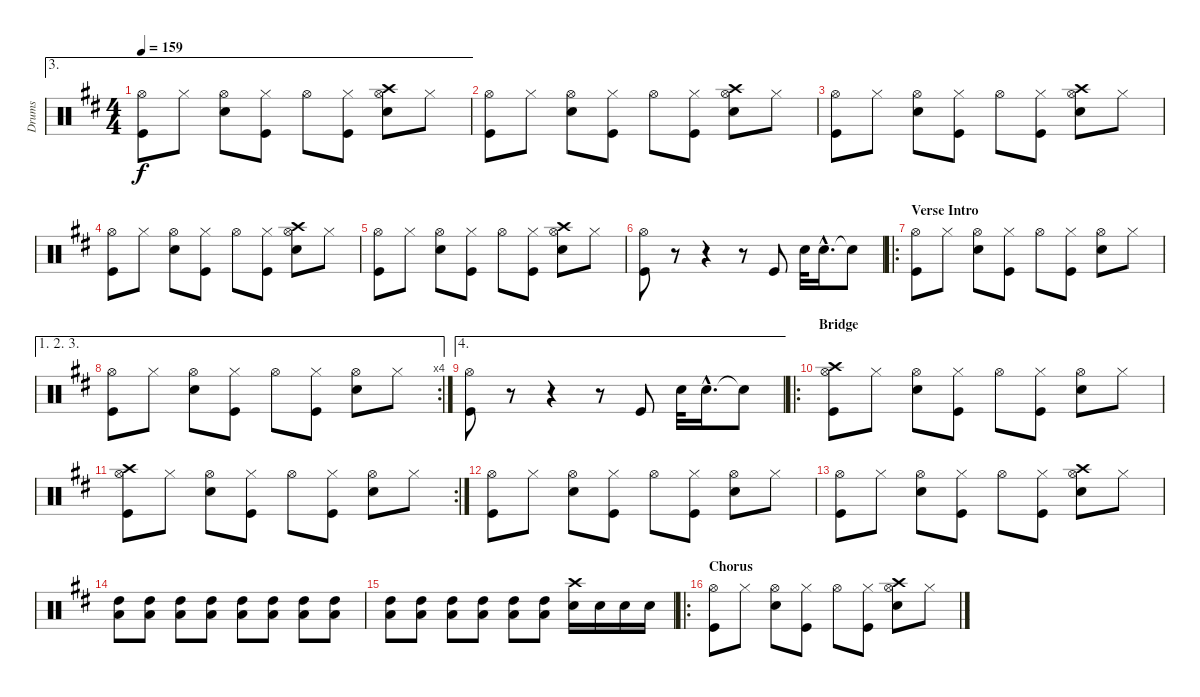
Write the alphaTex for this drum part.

\track ("Drums" "Drums") {instrument percussion}
\staff {score}
\articulation defaults
\ae 3
\ts (4 4)
\tempo 159
\clef neutral
\ks d
("Hi-Hat (open)" "Kick (hit)").8{dy f} "Hi-Hat (closed)".8 ("Hi-Hat (open)" "Snare (hit) 2").8 ("Hi-Hat (closed)" "Kick (hit)").8 "Hi-Hat (open)".8 ("Hi-Hat (closed)" "Kick (hit)").8 ("Hi-Hat (open)" "Snare (hit) 2" "Crash high (hit)").8 "Hi-Hat (closed)".8 |
("Hi-Hat (open)" "Kick (hit)").8 "Hi-Hat (closed)".8 ("Hi-Hat (open)" "Snare (hit) 2").8 ("Hi-Hat (closed)" "Kick (hit)").8 "Hi-Hat (open)".8 ("Hi-Hat (closed)" "Kick (hit)").8 ("Hi-Hat (open)" "Snare (hit) 2" "Crash high (hit)").8 "Hi-Hat (closed)".8 |
("Hi-Hat (open)" "Kick (hit)").8 "Hi-Hat (closed)".8 ("Hi-Hat (open)" "Snare (hit) 2").8 ("Hi-Hat (closed)" "Kick (hit)").8 "Hi-Hat (open)".8 ("Hi-Hat (closed)" "Kick (hit)").8 ("Hi-Hat (open)" "Snare (hit) 2" "Crash high (hit)").8 "Hi-Hat (closed)".8 |
("Hi-Hat (open)" "Kick (hit)").8 "Hi-Hat (closed)".8 ("Hi-Hat (open)" "Snare (hit) 2").8 ("Hi-Hat (closed)" "Kick (hit)").8 "Hi-Hat (open)".8 ("Hi-Hat (closed)" "Kick (hit)").8 ("Hi-Hat (open)" "Snare (hit) 2" "Crash high (hit)").8 "Hi-Hat (closed)".8 |
("Hi-Hat (open)" "Kick (hit)").8 "Hi-Hat (closed)".8 ("Hi-Hat (open)" "Snare (hit) 2").8 ("Hi-Hat (closed)" "Kick (hit)").8 "Hi-Hat (open)".8 ("Hi-Hat (closed)" "Kick (hit)").8 ("Hi-Hat (open)" "Snare (hit) 2" "Crash high (hit)").8 "Hi-Hat (closed)".8 |
("Hi-Hat (open)" "Kick (hit)").8 r.8 r.4 r.8 "Kick (hit)".8 "Snare (hit) 2".32 "Snare (hit) 2"{hac}.16{d} "Snare (hit)"{t}.8 |
\ro
\section ("" "Verse Intro")
("Hi-Hat (open)" "Kick (hit)").8 "Hi-Hat (closed)".8 ("Hi-Hat (open)" "Snare (hit) 2").8 ("Hi-Hat (closed)" "Kick (hit)").8 "Hi-Hat (open)".8 ("Hi-Hat (closed)" "Kick (hit)").8 ("Hi-Hat (open)" "Snare (hit) 2").8 "Hi-Hat (closed)".8 |
\ae (1 2 3)
\rc 4
("Hi-Hat (open)" "Kick (hit)").8 "Hi-Hat (closed)".8 ("Hi-Hat (open)" "Snare (hit) 2").8 ("Hi-Hat (closed)" "Kick (hit)").8 "Hi-Hat (open)".8 ("Hi-Hat (closed)" "Kick (hit)").8 ("Hi-Hat (open)" "Snare (hit) 2").8 "Hi-Hat (closed)".8 |
\ae 4
("Hi-Hat (open)" "Kick (hit)").8 r.8 r.4 r.8 "Kick (hit)".8 "Snare (hit) 2".32 "Snare (hit) 2"{hac}.16{d} "Snare (hit)"{t}.8 |
\ro
\section ("" "Bridge")
("Hi-Hat (open)" "Kick (hit)" "Crash high (hit)").8 "Hi-Hat (closed)".8 ("Hi-Hat (open)" "Snare (hit) 2").8 ("Hi-Hat (closed)" "Kick (hit)").8 "Hi-Hat (open)".8 ("Hi-Hat (closed)" "Kick (hit)").8 ("Hi-Hat (open)" "Snare (hit) 2").8 "Hi-Hat (closed)".8 |
\rc 2
("Hi-Hat (open)" "Kick (hit)" "Crash high (hit)").8 "Hi-Hat (closed)".8 ("Hi-Hat (open)" "Snare (hit) 2").8 ("Hi-Hat (closed)" "Kick (hit)").8 "Hi-Hat (open)".8 ("Hi-Hat (closed)" "Kick (hit)").8 ("Hi-Hat (open)" "Snare (hit) 2").8 "Hi-Hat (closed)".8 |
("Hi-Hat (open)" "Kick (hit)").8 "Hi-Hat (closed)".8 ("Hi-Hat (open)" "Snare (hit) 2").8 ("Hi-Hat (closed)" "Kick (hit)").8 "Hi-Hat (open)".8 ("Hi-Hat (closed)" "Kick (hit)").8 ("Hi-Hat (open)" "Snare (hit) 2").8 "Hi-Hat (closed)".8 |
("Hi-Hat (open)" "Kick (hit)").8 "Hi-Hat (closed)".8 ("Hi-Hat (open)" "Snare (hit) 2").8 ("Hi-Hat (closed)" "Kick (hit)").8 "Hi-Hat (open)".8 ("Hi-Hat (closed)" "Kick (hit)").8 ("Hi-Hat (open)" "Snare (hit) 2" "Crash high (hit)").8 "Hi-Hat (closed)".8 |
("Low Floor Tom (hit)" "High Tom (hit)").8 ("Low Floor Tom (hit)" "High Tom (hit)").8 ("Low Floor Tom (hit)" "High Tom (hit)").8 ("Low Floor Tom (hit)" "High Tom (hit)").8 ("Low Floor Tom (hit)" "High Tom (hit)").8 ("Low Floor Tom (hit)" "High Tom (hit)").8 ("Low Floor Tom (hit)" "High Tom (hit)").8 ("Low Floor Tom (hit)" "High Tom (hit)").8 |
("Low Floor Tom (hit)" "High Tom (hit)").8 ("Low Floor Tom (hit)" "High Tom (hit)").8 ("Low Floor Tom (hit)" "High Tom (hit)").8 ("Low Floor Tom (hit)" "High Tom (hit)").8 ("Low Floor Tom (hit)" "High Tom (hit)").8 ("Low Floor Tom (hit)" "High Tom (hit)").8 ("Snare (hit) 2" "Crash high (hit)").16 "Snare (hit) 2".16 "Snare (hit) 2".16 "Snare (hit) 2".16 |
\ro
\section ("" "Chorus")
("Hi-Hat (open)" "Kick (hit)").8 "Hi-Hat (closed)".8 ("Hi-Hat (open)" "Snare (hit) 2").8 ("Hi-Hat (closed)" "Kick (hit)").8 "Hi-Hat (open)".8 ("Hi-Hat (closed)" "Kick (hit)").8 ("Hi-Hat (open)" "Snare (hit) 2" "Crash high (hit)").8 "Hi-Hat (closed)".8
